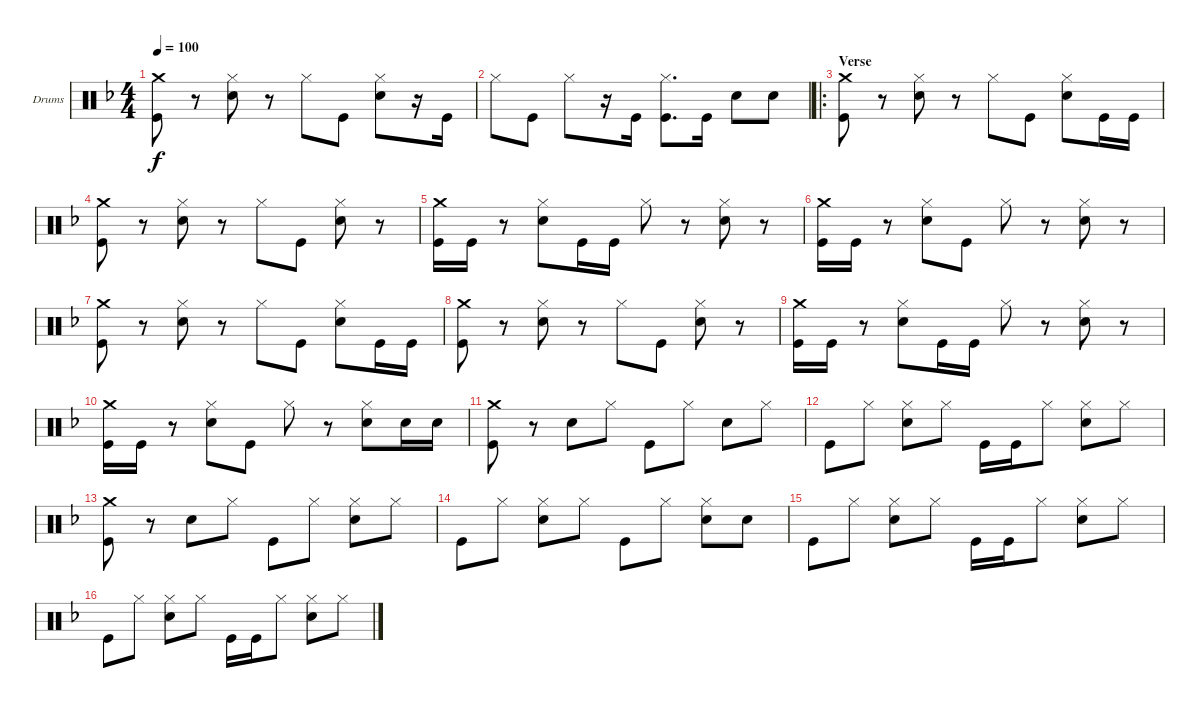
\bracketExtendMode groupsimilarinstruments
\firstSystemTrackNameOrientation horizontal
\otherSystemsTrackNameOrientation horizontal
\track ("Drums" "Drums") {instrument percussion}
\staff {score}
\articulation defaults
\ts (4 4)
\tempo 100
\clef neutral
\ks dminor
("Crash medium (hit)" "Kick (hit)").8{dy f} r.8 ("Hi-Hat (closed)" "Snare (hit) 2").8 r.8 "Hi-Hat (closed)".8 "Kick (hit)".8 ("Hi-Hat (closed)" "Snare (hit) 2").8 r.16 "Kick (hit)".16 |
"Hi-Hat (closed)".8 "Kick (hit)".8 "Hi-Hat (closed)".8 r.16 "Kick (hit)".16 ("Hi-Hat (closed)" "Kick (hit)").8{d} "Kick (hit)".16 "Snare (hit) 2".8 "Snare (hit) 2".8 |
\ro
\section ("" "Verse")
("Crash medium (hit)" "Kick (hit)").8 r.8 ("Hi-Hat (closed)" "Snare (hit) 2").8 r.8 "Hi-Hat (closed)".8 "Kick (hit)".8 ("Hi-Hat (closed)" "Snare (hit) 2").8 "Kick (hit)".16 "Kick (hit)".16 |
("Crash medium (hit)" "Kick (hit)").8 r.8 ("Hi-Hat (closed)" "Snare (hit) 2").8 r.8 "Hi-Hat (closed)".8 "Kick (hit)".8 ("Hi-Hat (closed)" "Snare (hit) 2").8 r.8 |
("Crash medium (hit)" "Kick (hit)").16 "Kick (hit)".16 r.8 ("Hi-Hat (closed)" "Snare (hit) 2").8 "Kick (hit)".16 "Kick (hit)".16 "Hi-Hat (closed)".8 r.8 ("Hi-Hat (closed)" "Snare (hit) 2").8 r.8 |
("Crash medium (hit)" "Kick (hit)").16 "Kick (hit)".16 r.8 ("Hi-Hat (closed)" "Snare (hit) 2").8 "Kick (hit)".8 "Hi-Hat (closed)".8 r.8 ("Hi-Hat (closed)" "Snare (hit) 2").8 r.8 |
("Crash medium (hit)" "Kick (hit)").8 r.8 ("Hi-Hat (closed)" "Snare (hit) 2").8 r.8 "Hi-Hat (closed)".8 "Kick (hit)".8 ("Hi-Hat (closed)" "Snare (hit) 2").8 "Kick (hit)".16 "Kick (hit)".16 |
("Crash medium (hit)" "Kick (hit)").8 r.8 ("Hi-Hat (closed)" "Snare (hit) 2").8 r.8 "Hi-Hat (closed)".8 "Kick (hit)".8 ("Hi-Hat (closed)" "Snare (hit) 2").8 r.8 |
("Crash medium (hit)" "Kick (hit)").16 "Kick (hit)".16 r.8 ("Hi-Hat (closed)" "Snare (hit) 2").8 "Kick (hit)".16 "Kick (hit)".16 "Hi-Hat (closed)".8 r.8 ("Hi-Hat (closed)" "Snare (hit) 2").8 r.8 |
("Crash medium (hit)" "Kick (hit)").16 "Kick (hit)".16 r.8 ("Hi-Hat (closed)" "Snare (hit) 2").8 "Kick (hit)".8 "Hi-Hat (closed)".8 r.8 ("Hi-Hat (closed)" "Snare (hit) 2").8 "Snare (hit) 2".16 "Snare (hit) 2".16 |
("Crash medium (hit)" "Kick (hit)").8 r.8 "Snare (hit) 2".8 "Hi-Hat (closed)".8 "Kick (hit)".8 "Hi-Hat (closed)".8 "Snare (hit) 2".8 "Hi-Hat (closed)".8 |
"Kick (hit)".8 "Hi-Hat (closed)".8 ("Hi-Hat (closed)" "Snare (hit) 2").8 "Hi-Hat (closed)".8 "Kick (hit)".16 "Kick (hit)".16 "Hi-Hat (closed)".8 ("Hi-Hat (closed)" "Snare (hit) 2").8 "Hi-Hat (closed)".8 |
("Crash medium (hit)" "Kick (hit)").8 r.8 "Snare (hit) 2".8 "Hi-Hat (closed)".8 "Kick (hit)".8 "Hi-Hat (closed)".8 ("Hi-Hat (closed)" "Snare (hit) 2").8 "Hi-Hat (closed)".8 |
"Kick (hit)".8 "Hi-Hat (closed)".8 ("Hi-Hat (closed)" "Snare (hit) 2").8 "Hi-Hat (closed)".8 "Kick (hit)".8 "Hi-Hat (closed)".8 ("Hi-Hat (closed)" "Snare (hit) 2").8 "Snare (hit) 2".8 |
"Kick (hit)".8 "Hi-Hat (closed)".8 ("Hi-Hat (closed)" "Snare (hit) 2").8 "Hi-Hat (closed)".8 "Kick (hit)".16 "Kick (hit)".16 "Hi-Hat (closed)".8 ("Hi-Hat (closed)" "Snare (hit) 2").8 "Hi-Hat (closed)".8 |
"Kick (hit)".8 "Hi-Hat (closed)".8 ("Hi-Hat (closed)" "Snare (hit) 2").8 "Hi-Hat (closed)".8 "Kick (hit)".16 "Kick (hit)".16 "Hi-Hat (closed)".8 ("Hi-Hat (closed)" "Snare (hit) 2").8 "Hi-Hat (closed)".8
